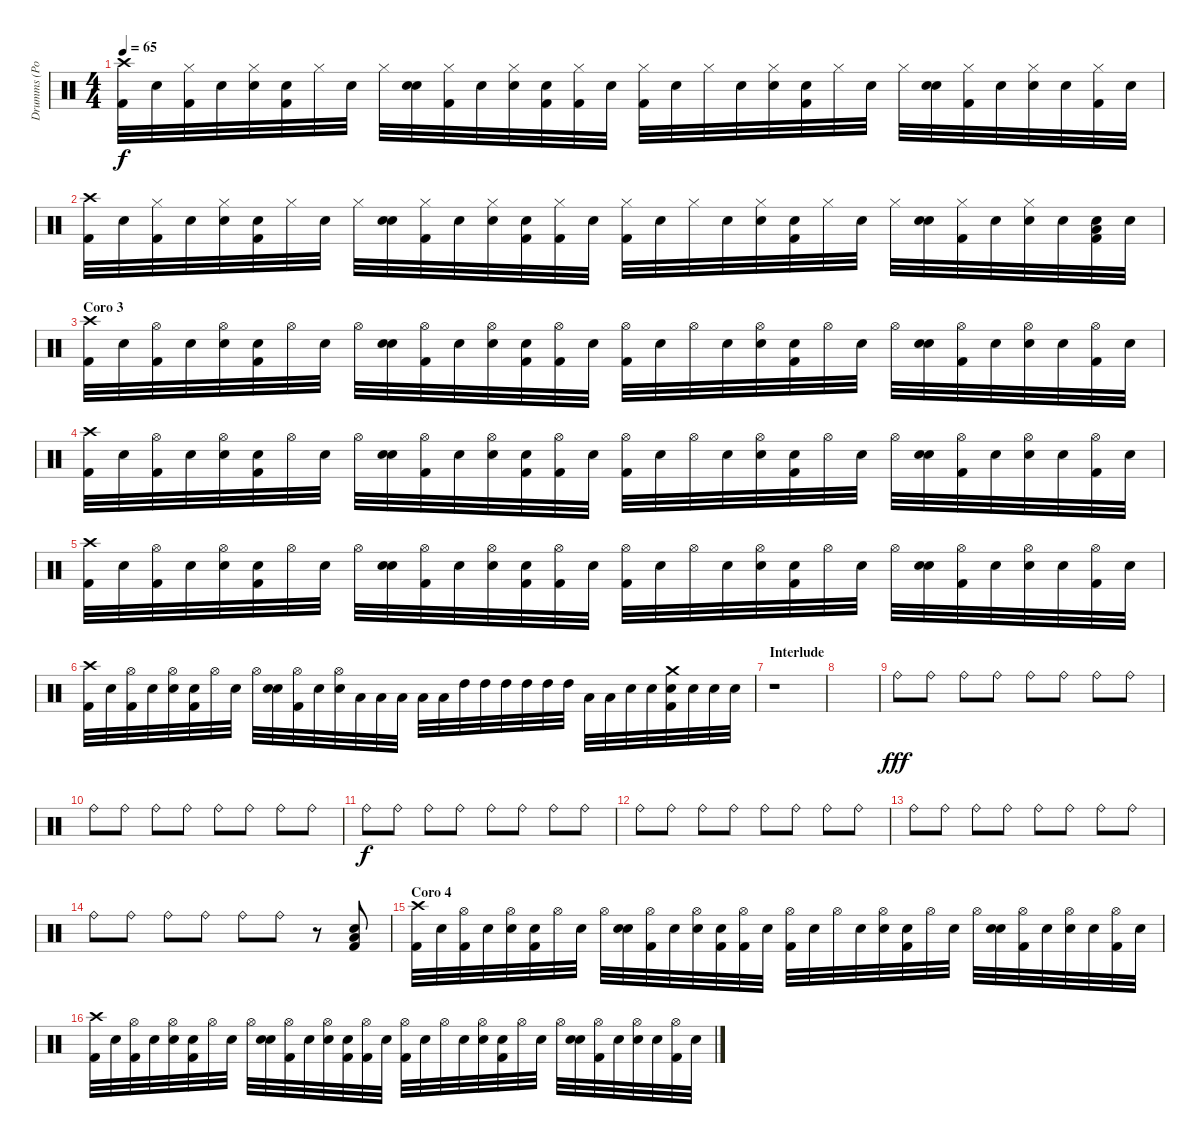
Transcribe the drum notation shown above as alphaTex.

\track ("Drumms (Poll0)" "Drumms (Po") {instrument percussion}
\staff {score}
\articulation defaults
\ts (4 4)
\tempo 65
\clef neutral
\ks c
("Crash high (hit)" "Kick (hit) 2").32{dy f} "Snare (hit)".32 ("Hi-Hat (closed)" "Kick (hit) 2").32 "Snare (hit)".32 ("Hi-Hat (closed)" "Snare (hit) 2").32 ("Snare (hit)" "Kick (hit) 2").32 "Hi-Hat (closed)".32 "Snare (hit)".32 "Hi-Hat (closed)".32 ("Snare (hit)" "Snare (hit) 2").32 ("Hi-Hat (closed)" "Kick (hit) 2").32 "Snare (hit)".32 ("Hi-Hat (closed)" "Snare (hit) 2").32 ("Snare (hit)" "Kick (hit) 2").32 ("Hi-Hat (closed)" "Kick (hit) 2").32 "Snare (hit)".32 ("Hi-Hat (closed)" "Kick (hit) 2").32 "Snare (hit)".32 "Hi-Hat (closed)".32 "Snare (hit)".32 ("Hi-Hat (closed)" "Snare (hit) 2").32 ("Snare (hit)" "Kick (hit) 2").32 "Hi-Hat (closed)".32 "Snare (hit)".32 "Hi-Hat (closed)".32 ("Snare (hit)" "Snare (hit) 2").32 ("Hi-Hat (closed)" "Kick (hit) 2").32 "Snare (hit)".32 ("Hi-Hat (closed)" "Snare (hit) 2").32 "Snare (hit)".32 ("Hi-Hat (closed)" "Kick (hit) 2").32 "Snare (hit)".32 |
("Crash high (hit)" "Kick (hit) 2").32 "Snare (hit)".32 ("Hi-Hat (closed)" "Kick (hit) 2").32 "Snare (hit)".32 ("Hi-Hat (closed)" "Snare (hit) 2").32 ("Snare (hit)" "Kick (hit) 2").32 "Hi-Hat (closed)".32 "Snare (hit)".32 "Hi-Hat (closed)".32 ("Snare (hit)" "Snare (hit) 2").32 ("Hi-Hat (closed)" "Kick (hit) 2").32 "Snare (hit)".32 ("Hi-Hat (closed)" "Snare (hit) 2").32 ("Snare (hit)" "Kick (hit) 2").32 ("Hi-Hat (closed)" "Kick (hit) 2").32 "Snare (hit)".32 ("Hi-Hat (closed)" "Kick (hit) 2").32 "Snare (hit)".32 "Hi-Hat (closed)".32 "Snare (hit)".32 ("Hi-Hat (closed)" "Snare (hit) 2").32 ("Snare (hit)" "Kick (hit) 2").32 "Hi-Hat (closed)".32 "Snare (hit)".32 "Hi-Hat (closed)".32 ("Snare (hit)" "Snare (hit) 2").32 ("Hi-Hat (closed)" "Kick (hit) 2").32 "Snare (hit)".32 ("Hi-Hat (closed)" "Snare (hit) 2").32 "Snare (hit)".32 ("Snare (hit) 2" "Low Tom (hit)" "Kick (hit) 2").32 "Snare (hit)".32 |
\section ("" "Coro 3")
("Crash high (hit)" "Kick (hit) 2").32 "Snare (hit)".32 ("Hi-Hat (open)" "Kick (hit) 2").32 "Snare (hit)".32 ("Hi-Hat (open)" "Snare (hit) 2").32 ("Snare (hit)" "Kick (hit) 2").32 "Hi-Hat (open)".32 "Snare (hit)".32 "Hi-Hat (open)".32 ("Snare (hit)" "Snare (hit) 2").32 ("Hi-Hat (open)" "Kick (hit) 2").32 "Snare (hit)".32 ("Hi-Hat (open)" "Snare (hit) 2").32 ("Snare (hit)" "Kick (hit) 2").32 ("Hi-Hat (open)" "Kick (hit) 2").32 "Snare (hit)".32 ("Hi-Hat (open)" "Kick (hit) 2").32 "Snare (hit)".32 "Hi-Hat (open)".32 "Snare (hit)".32 ("Hi-Hat (open)" "Snare (hit) 2").32 ("Snare (hit)" "Kick (hit) 2").32 "Hi-Hat (open)".32 "Snare (hit)".32 "Hi-Hat (open)".32 ("Snare (hit)" "Snare (hit) 2").32 ("Hi-Hat (open)" "Kick (hit) 2").32 "Snare (hit)".32 ("Hi-Hat (open)" "Snare (hit) 2").32 "Snare (hit)".32 ("Hi-Hat (open)" "Kick (hit) 2").32 "Snare (hit)".32 |
("Crash high (hit)" "Kick (hit) 2").32 "Snare (hit)".32 ("Hi-Hat (open)" "Kick (hit) 2").32 "Snare (hit)".32 ("Hi-Hat (open)" "Snare (hit) 2").32 ("Snare (hit)" "Kick (hit) 2").32 "Hi-Hat (open)".32 "Snare (hit)".32 "Hi-Hat (open)".32 ("Snare (hit)" "Snare (hit) 2").32 ("Hi-Hat (open)" "Kick (hit) 2").32 "Snare (hit)".32 ("Hi-Hat (open)" "Snare (hit) 2").32 ("Snare (hit)" "Kick (hit) 2").32 ("Hi-Hat (open)" "Kick (hit) 2").32 "Snare (hit)".32 ("Hi-Hat (open)" "Kick (hit) 2").32 "Snare (hit)".32 "Hi-Hat (open)".32 "Snare (hit)".32 ("Hi-Hat (open)" "Snare (hit) 2").32 ("Snare (hit)" "Kick (hit) 2").32 "Hi-Hat (open)".32 "Snare (hit)".32 "Hi-Hat (open)".32 ("Snare (hit)" "Snare (hit) 2").32 ("Hi-Hat (open)" "Kick (hit) 2").32 "Snare (hit)".32 ("Hi-Hat (open)" "Snare (hit) 2").32 "Snare (hit)".32 ("Hi-Hat (open)" "Kick (hit) 2").32 "Snare (hit)".32 |
("Crash high (hit)" "Kick (hit) 2").32 "Snare (hit)".32 ("Hi-Hat (open)" "Kick (hit) 2").32 "Snare (hit)".32 ("Hi-Hat (open)" "Snare (hit) 2").32 ("Snare (hit)" "Kick (hit) 2").32 "Hi-Hat (open)".32 "Snare (hit)".32 "Hi-Hat (open)".32 ("Snare (hit)" "Snare (hit) 2").32 ("Hi-Hat (open)" "Kick (hit) 2").32 "Snare (hit)".32 ("Hi-Hat (open)" "Snare (hit) 2").32 ("Snare (hit)" "Kick (hit) 2").32 ("Hi-Hat (open)" "Kick (hit) 2").32 "Snare (hit)".32 ("Hi-Hat (open)" "Kick (hit) 2").32 "Snare (hit)".32 "Hi-Hat (open)".32 "Snare (hit)".32 ("Hi-Hat (open)" "Snare (hit) 2").32 ("Snare (hit)" "Kick (hit) 2").32 "Hi-Hat (open)".32 "Snare (hit)".32 "Hi-Hat (open)".32 ("Snare (hit)" "Snare (hit) 2").32 ("Hi-Hat (open)" "Kick (hit) 2").32 "Snare (hit)".32 ("Hi-Hat (open)" "Snare (hit) 2").32 "Snare (hit)".32 ("Hi-Hat (open)" "Kick (hit) 2").32 "Snare (hit)".32 |
("Crash high (hit)" "Kick (hit) 2").32 "Snare (hit)".32 ("Hi-Hat (open)" "Kick (hit) 2").32 "Snare (hit)".32 ("Hi-Hat (open)" "Snare (hit) 2").32 ("Snare (hit)" "Kick (hit) 2").32 "Hi-Hat (open)".32 "Snare (hit)".32 "Hi-Hat (open)".32 ("Snare (hit)" "Snare (hit) 2").32 ("Hi-Hat (open)" "Kick (hit) 2").32 "Snare (hit)".32 ("Hi-Hat (open)" "Snare (hit) 2").32 "Low Floor Tom (hit)".32 "Low Floor Tom (hit)".32 "Low Floor Tom (hit)".32 "Low Floor Tom (hit)".32 "Low Floor Tom (hit)".32 "High Tom (hit)".32 "High Tom (hit)".32 "High Tom (hit)".32 "High Tom (hit)".32 "High Tom (hit)".32 "High Tom (hit)".32 "Low Tom (hit)".32 "Low Tom (hit)".32 "Snare (hit)".32 "Snare (hit)".32 ("Crash medium (hit)" "Snare (hit)" "Kick (hit) 2").32 "Snare (hit)".32 "Snare (hit)".32 "Snare (hit)".32 |
\section ("" "Interlude")
r.1 |
|
"Ride (bell)".8{dy fff} "Ride (bell)".8 "Ride (bell)".8 "Ride (bell)".8 "Ride (bell)".8 "Ride (bell)".8 "Ride (bell)".8 "Ride (bell)".8 |
"Ride (bell)".8 "Ride (bell)".8 "Ride (bell)".8 "Ride (bell)".8 "Ride (bell)".8 "Ride (bell)".8 "Ride (bell)".8 "Ride (bell)".8 |
"Ride (bell)".8{dy f} "Ride (bell)".8 "Ride (bell)".8 "Ride (bell)".8 "Ride (bell)".8 "Ride (bell)".8 "Ride (bell)".8 "Ride (bell)".8 |
"Ride (bell)".8 "Ride (bell)".8 "Ride (bell)".8 "Ride (bell)".8 "Ride (bell)".8 "Ride (bell)".8 "Ride (bell)".8 "Ride (bell)".8 |
"Ride (bell)".8 "Ride (bell)".8 "Ride (bell)".8 "Ride (bell)".8 "Ride (bell)".8 "Ride (bell)".8 "Ride (bell)".8 "Ride (bell)".8 |
"Ride (bell)".8 "Ride (bell)".8 "Ride (bell)".8 "Ride (bell)".8 "Ride (bell)".8 "Ride (bell)".8 r.8 ("Snare (hit) 2" "Low Tom (hit)" "Kick (hit) 2").8 |
\section ("" "Coro 4")
("Crash high (hit)" "Kick (hit) 2").32 "Snare (hit)".32 ("Hi-Hat (open)" "Kick (hit) 2").32 "Snare (hit)".32 ("Hi-Hat (open)" "Snare (hit) 2").32 ("Snare (hit)" "Kick (hit) 2").32 "Hi-Hat (open)".32 "Snare (hit)".32 "Hi-Hat (open)".32 ("Snare (hit)" "Snare (hit) 2").32 ("Hi-Hat (open)" "Kick (hit) 2").32 "Snare (hit)".32 ("Hi-Hat (open)" "Snare (hit) 2").32 ("Snare (hit)" "Kick (hit) 2").32 ("Hi-Hat (open)" "Kick (hit) 2").32 "Snare (hit)".32 ("Hi-Hat (open)" "Kick (hit) 2").32 "Snare (hit)".32 "Hi-Hat (open)".32 "Snare (hit)".32 ("Hi-Hat (open)" "Snare (hit) 2").32 ("Snare (hit)" "Kick (hit) 2").32 "Hi-Hat (open)".32 "Snare (hit)".32 "Hi-Hat (open)".32 ("Snare (hit)" "Snare (hit) 2").32 ("Hi-Hat (open)" "Kick (hit) 2").32 "Snare (hit)".32 ("Hi-Hat (open)" "Snare (hit) 2").32 "Snare (hit)".32 ("Hi-Hat (open)" "Kick (hit) 2").32 "Snare (hit)".32 |
("Crash high (hit)" "Kick (hit) 2").32 "Snare (hit)".32 ("Hi-Hat (open)" "Kick (hit) 2").32 "Snare (hit)".32 ("Hi-Hat (open)" "Snare (hit) 2").32 ("Snare (hit)" "Kick (hit) 2").32 "Hi-Hat (open)".32 "Snare (hit)".32 "Hi-Hat (open)".32 ("Snare (hit)" "Snare (hit) 2").32 ("Hi-Hat (open)" "Kick (hit) 2").32 "Snare (hit)".32 ("Hi-Hat (open)" "Snare (hit) 2").32 ("Snare (hit)" "Kick (hit) 2").32 ("Hi-Hat (open)" "Kick (hit) 2").32 "Snare (hit)".32 ("Hi-Hat (open)" "Kick (hit) 2").32 "Snare (hit)".32 "Hi-Hat (open)".32 "Snare (hit)".32 ("Hi-Hat (open)" "Snare (hit) 2").32 ("Snare (hit)" "Kick (hit) 2").32 "Hi-Hat (open)".32 "Snare (hit)".32 "Hi-Hat (open)".32 ("Snare (hit)" "Snare (hit) 2").32 ("Hi-Hat (open)" "Kick (hit) 2").32 "Snare (hit)".32 ("Hi-Hat (open)" "Snare (hit) 2").32 "Snare (hit)".32 ("Hi-Hat (open)" "Kick (hit) 2").32 "Snare (hit)".32
